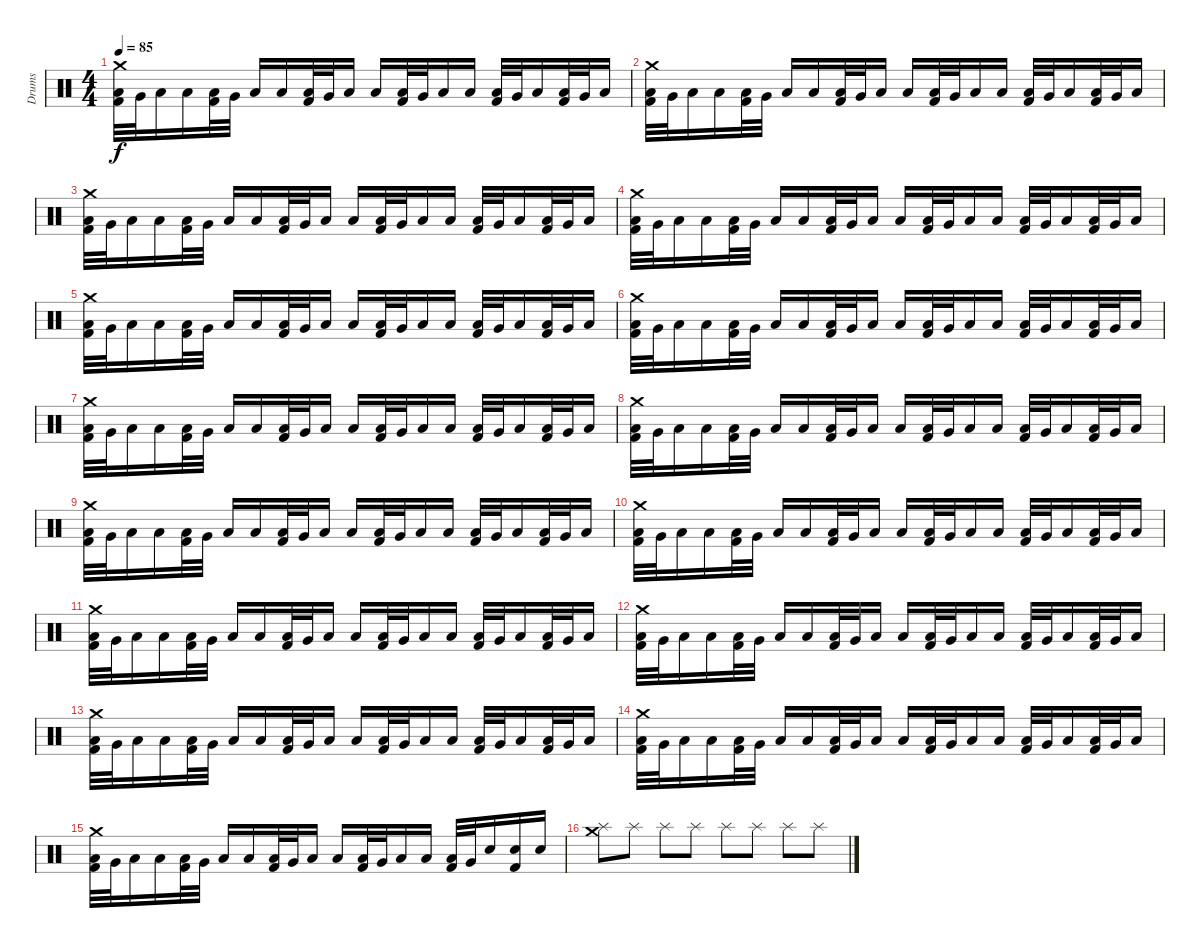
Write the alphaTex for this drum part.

\track ("Drums" "Drums") {instrument percussion}
\staff {score}
\articulation defaults
\ts (4 4)
\tempo 85
\clef neutral
\ks c
("Crash medium (hit)" "Low Tom (hit)" "Kick (hit) 2").32{dy f} "Very Low Tom (hit)".32 "Low Floor Tom (hit)".16 "Low Floor Tom (hit)".16 ("Low Tom (hit)" "Kick (hit) 2").32 "Very Low Tom (hit)".32 "Low Floor Tom (hit)".16 "Low Floor Tom (hit)".16 ("Low Tom (hit)" "Kick (hit) 2").32 "Very Low Tom (hit)".32 "Low Floor Tom (hit)".16 "Low Floor Tom (hit)".16 ("Low Tom (hit)" "Kick (hit) 2").32 "Very Low Tom (hit)".32 "Low Floor Tom (hit)".16 "Low Floor Tom (hit)".16 ("Low Tom (hit)" "Kick (hit) 2").32 "Very Low Tom (hit)".32 "Low Floor Tom (hit)".16 ("Low Tom (hit)" "Kick (hit) 2").32 "Very Low Tom (hit)".32 "Low Floor Tom (hit)".16 |
("Crash medium (hit)" "Low Tom (hit)" "Kick (hit) 2").32 "Very Low Tom (hit)".32 "Low Floor Tom (hit)".16 "Low Floor Tom (hit)".16 ("Low Tom (hit)" "Kick (hit) 2").32 "Very Low Tom (hit)".32 "Low Floor Tom (hit)".16 "Low Floor Tom (hit)".16 ("Low Tom (hit)" "Kick (hit) 2").32 "Very Low Tom (hit)".32 "Low Floor Tom (hit)".16 "Low Floor Tom (hit)".16 ("Low Tom (hit)" "Kick (hit) 2").32 "Very Low Tom (hit)".32 "Low Floor Tom (hit)".16 "Low Floor Tom (hit)".16 ("Low Tom (hit)" "Kick (hit) 2").32 "Very Low Tom (hit)".32 "Low Floor Tom (hit)".16 ("Low Tom (hit)" "Kick (hit) 2").32 "Very Low Tom (hit)".32 "Low Floor Tom (hit)".16 |
("Crash medium (hit)" "Low Tom (hit)" "Kick (hit) 2").32 "Very Low Tom (hit)".32 "Low Floor Tom (hit)".16 "Low Floor Tom (hit)".16 ("Low Tom (hit)" "Kick (hit) 2").32 "Very Low Tom (hit)".32 "Low Floor Tom (hit)".16 "Low Floor Tom (hit)".16 ("Low Tom (hit)" "Kick (hit) 2").32 "Very Low Tom (hit)".32 "Low Floor Tom (hit)".16 "Low Floor Tom (hit)".16 ("Low Tom (hit)" "Kick (hit) 2").32 "Very Low Tom (hit)".32 "Low Floor Tom (hit)".16 "Low Floor Tom (hit)".16 ("Low Tom (hit)" "Kick (hit) 2").32 "Very Low Tom (hit)".32 "Low Floor Tom (hit)".16 ("Low Tom (hit)" "Kick (hit) 2").32 "Very Low Tom (hit)".32 "Low Floor Tom (hit)".16 |
("Crash medium (hit)" "Low Tom (hit)" "Kick (hit) 2").32 "Very Low Tom (hit)".32 "Low Floor Tom (hit)".16 "Low Floor Tom (hit)".16 ("Low Tom (hit)" "Kick (hit) 2").32 "Very Low Tom (hit)".32 "Low Floor Tom (hit)".16 "Low Floor Tom (hit)".16 ("Low Tom (hit)" "Kick (hit) 2").32 "Very Low Tom (hit)".32 "Low Floor Tom (hit)".16 "Low Floor Tom (hit)".16 ("Low Tom (hit)" "Kick (hit) 2").32 "Very Low Tom (hit)".32 "Low Floor Tom (hit)".16 "Low Floor Tom (hit)".16 ("Low Tom (hit)" "Kick (hit) 2").32 "Very Low Tom (hit)".32 "Low Floor Tom (hit)".16 ("Low Tom (hit)" "Kick (hit) 2").32 "Very Low Tom (hit)".32 "Low Floor Tom (hit)".16 |
("Crash medium (hit)" "Low Tom (hit)" "Kick (hit) 2").32 "Very Low Tom (hit)".32 "Low Floor Tom (hit)".16 "Low Floor Tom (hit)".16 ("Low Tom (hit)" "Kick (hit) 2").32 "Very Low Tom (hit)".32 "Low Floor Tom (hit)".16 "Low Floor Tom (hit)".16 ("Low Tom (hit)" "Kick (hit) 2").32 "Very Low Tom (hit)".32 "Low Floor Tom (hit)".16 "Low Floor Tom (hit)".16 ("Low Tom (hit)" "Kick (hit) 2").32 "Very Low Tom (hit)".32 "Low Floor Tom (hit)".16 "Low Floor Tom (hit)".16 ("Low Tom (hit)" "Kick (hit) 2").32 "Very Low Tom (hit)".32 "Low Floor Tom (hit)".16 ("Low Tom (hit)" "Kick (hit) 2").32 "Very Low Tom (hit)".32 "Low Floor Tom (hit)".16 |
("Crash medium (hit)" "Low Tom (hit)" "Kick (hit) 2").32 "Very Low Tom (hit)".32 "Low Floor Tom (hit)".16 "Low Floor Tom (hit)".16 ("Low Tom (hit)" "Kick (hit) 2").32 "Very Low Tom (hit)".32 "Low Floor Tom (hit)".16 "Low Floor Tom (hit)".16 ("Low Tom (hit)" "Kick (hit) 2").32 "Very Low Tom (hit)".32 "Low Floor Tom (hit)".16 "Low Floor Tom (hit)".16 ("Low Tom (hit)" "Kick (hit) 2").32 "Very Low Tom (hit)".32 "Low Floor Tom (hit)".16 "Low Floor Tom (hit)".16 ("Low Tom (hit)" "Kick (hit) 2").32 "Very Low Tom (hit)".32 "Low Floor Tom (hit)".16 ("Low Tom (hit)" "Kick (hit) 2").32 "Very Low Tom (hit)".32 "Low Floor Tom (hit)".16 |
("Crash medium (hit)" "Low Tom (hit)" "Kick (hit) 2").32 "Very Low Tom (hit)".32 "Low Floor Tom (hit)".16 "Low Floor Tom (hit)".16 ("Low Tom (hit)" "Kick (hit) 2").32 "Very Low Tom (hit)".32 "Low Floor Tom (hit)".16 "Low Floor Tom (hit)".16 ("Low Tom (hit)" "Kick (hit) 2").32 "Very Low Tom (hit)".32 "Low Floor Tom (hit)".16 "Low Floor Tom (hit)".16 ("Low Tom (hit)" "Kick (hit) 2").32 "Very Low Tom (hit)".32 "Low Floor Tom (hit)".16 "Low Floor Tom (hit)".16 ("Low Tom (hit)" "Kick (hit) 2").32 "Very Low Tom (hit)".32 "Low Floor Tom (hit)".16 ("Low Tom (hit)" "Kick (hit) 2").32 "Very Low Tom (hit)".32 "Low Floor Tom (hit)".16 |
("Crash medium (hit)" "Low Tom (hit)" "Kick (hit) 2").32 "Very Low Tom (hit)".32 "Low Floor Tom (hit)".16 "Low Floor Tom (hit)".16 ("Low Tom (hit)" "Kick (hit) 2").32 "Very Low Tom (hit)".32 "Low Floor Tom (hit)".16 "Low Floor Tom (hit)".16 ("Low Tom (hit)" "Kick (hit) 2").32 "Very Low Tom (hit)".32 "Low Floor Tom (hit)".16 "Low Floor Tom (hit)".16 ("Low Tom (hit)" "Kick (hit) 2").32 "Very Low Tom (hit)".32 "Low Floor Tom (hit)".16 "Low Floor Tom (hit)".16 ("Low Tom (hit)" "Kick (hit) 2").32 "Very Low Tom (hit)".32 "Low Floor Tom (hit)".16 ("Low Tom (hit)" "Kick (hit) 2").32 "Very Low Tom (hit)".32 "Low Floor Tom (hit)".16 |
("Crash medium (hit)" "Low Tom (hit)" "Kick (hit) 2").32 "Very Low Tom (hit)".32 "Low Floor Tom (hit)".16 "Low Floor Tom (hit)".16 ("Low Tom (hit)" "Kick (hit) 2").32 "Very Low Tom (hit)".32 "Low Floor Tom (hit)".16 "Low Floor Tom (hit)".16 ("Low Tom (hit)" "Kick (hit) 2").32 "Very Low Tom (hit)".32 "Low Floor Tom (hit)".16 "Low Floor Tom (hit)".16 ("Low Tom (hit)" "Kick (hit) 2").32 "Very Low Tom (hit)".32 "Low Floor Tom (hit)".16 "Low Floor Tom (hit)".16 ("Low Tom (hit)" "Kick (hit) 2").32 "Very Low Tom (hit)".32 "Low Floor Tom (hit)".16 ("Low Tom (hit)" "Kick (hit) 2").32 "Very Low Tom (hit)".32 "Low Floor Tom (hit)".16 |
("Crash medium (hit)" "Low Tom (hit)" "Kick (hit) 2").32 "Very Low Tom (hit)".32 "Low Floor Tom (hit)".16 "Low Floor Tom (hit)".16 ("Low Tom (hit)" "Kick (hit) 2").32 "Very Low Tom (hit)".32 "Low Floor Tom (hit)".16 "Low Floor Tom (hit)".16 ("Low Tom (hit)" "Kick (hit) 2").32 "Very Low Tom (hit)".32 "Low Floor Tom (hit)".16 "Low Floor Tom (hit)".16 ("Low Tom (hit)" "Kick (hit) 2").32 "Very Low Tom (hit)".32 "Low Floor Tom (hit)".16 "Low Floor Tom (hit)".16 ("Low Tom (hit)" "Kick (hit) 2").32 "Very Low Tom (hit)".32 "Low Floor Tom (hit)".16 ("Low Tom (hit)" "Kick (hit) 2").32 "Very Low Tom (hit)".32 "Low Floor Tom (hit)".16 |
("Crash medium (hit)" "Low Tom (hit)" "Kick (hit) 2").32 "Very Low Tom (hit)".32 "Low Floor Tom (hit)".16 "Low Floor Tom (hit)".16 ("Low Tom (hit)" "Kick (hit) 2").32 "Very Low Tom (hit)".32 "Low Floor Tom (hit)".16 "Low Floor Tom (hit)".16 ("Low Tom (hit)" "Kick (hit) 2").32 "Very Low Tom (hit)".32 "Low Floor Tom (hit)".16 "Low Floor Tom (hit)".16 ("Low Tom (hit)" "Kick (hit) 2").32 "Very Low Tom (hit)".32 "Low Floor Tom (hit)".16 "Low Floor Tom (hit)".16 ("Low Tom (hit)" "Kick (hit) 2").32 "Very Low Tom (hit)".32 "Low Floor Tom (hit)".16 ("Low Tom (hit)" "Kick (hit) 2").32 "Very Low Tom (hit)".32 "Low Floor Tom (hit)".16 |
("Crash medium (hit)" "Low Tom (hit)" "Kick (hit) 2").32 "Very Low Tom (hit)".32 "Low Floor Tom (hit)".16 "Low Floor Tom (hit)".16 ("Low Tom (hit)" "Kick (hit) 2").32 "Very Low Tom (hit)".32 "Low Floor Tom (hit)".16 "Low Floor Tom (hit)".16 ("Low Tom (hit)" "Kick (hit) 2").32 "Very Low Tom (hit)".32 "Low Floor Tom (hit)".16 "Low Floor Tom (hit)".16 ("Low Tom (hit)" "Kick (hit) 2").32 "Very Low Tom (hit)".32 "Low Floor Tom (hit)".16 "Low Floor Tom (hit)".16 ("Low Tom (hit)" "Kick (hit) 2").32 "Very Low Tom (hit)".32 "Low Floor Tom (hit)".16 ("Low Tom (hit)" "Kick (hit) 2").32 "Very Low Tom (hit)".32 "Low Floor Tom (hit)".16 |
("Crash medium (hit)" "Low Tom (hit)" "Kick (hit) 2").32 "Very Low Tom (hit)".32 "Low Floor Tom (hit)".16 "Low Floor Tom (hit)".16 ("Low Tom (hit)" "Kick (hit) 2").32 "Very Low Tom (hit)".32 "Low Floor Tom (hit)".16 "Low Floor Tom (hit)".16 ("Low Tom (hit)" "Kick (hit) 2").32 "Very Low Tom (hit)".32 "Low Floor Tom (hit)".16 "Low Floor Tom (hit)".16 ("Low Tom (hit)" "Kick (hit) 2").32 "Very Low Tom (hit)".32 "Low Floor Tom (hit)".16 "Low Floor Tom (hit)".16 ("Low Tom (hit)" "Kick (hit) 2").32 "Very Low Tom (hit)".32 "Low Floor Tom (hit)".16 ("Low Tom (hit)" "Kick (hit) 2").32 "Very Low Tom (hit)".32 "Low Floor Tom (hit)".16 |
("Crash medium (hit)" "Low Tom (hit)" "Kick (hit) 2").32 "Very Low Tom (hit)".32 "Low Floor Tom (hit)".16 "Low Floor Tom (hit)".16 ("Low Tom (hit)" "Kick (hit) 2").32 "Very Low Tom (hit)".32 "Low Floor Tom (hit)".16 "Low Floor Tom (hit)".16 ("Low Tom (hit)" "Kick (hit) 2").32 "Very Low Tom (hit)".32 "Low Floor Tom (hit)".16 "Low Floor Tom (hit)".16 ("Low Tom (hit)" "Kick (hit) 2").32 "Very Low Tom (hit)".32 "Low Floor Tom (hit)".16 "Low Floor Tom (hit)".16 ("Low Tom (hit)" "Kick (hit) 2").32 "Very Low Tom (hit)".32 "Low Floor Tom (hit)".16 ("Low Tom (hit)" "Kick (hit) 2").32 "Very Low Tom (hit)".32 "Low Floor Tom (hit)".16 |
("Crash medium (hit)" "Low Tom (hit)" "Kick (hit) 2").32 "Very Low Tom (hit)".32 "Low Floor Tom (hit)".16 "Low Floor Tom (hit)".16 ("Low Tom (hit)" "Kick (hit) 2").32 "Very Low Tom (hit)".32 "Low Floor Tom (hit)".16 "Low Floor Tom (hit)".16 ("Low Tom (hit)" "Kick (hit) 2").32 "Very Low Tom (hit)".32 "Low Floor Tom (hit)".16 "Low Floor Tom (hit)".16 ("Low Tom (hit)" "Kick (hit) 2").32 "Very Low Tom (hit)".32 "Low Floor Tom (hit)".16 "Low Floor Tom (hit)".16 ("Low Tom (hit)" "Kick (hit) 2").32 "Very Low Tom (hit)".32 "Snare (hit) 2".16 ("Snare (hit) 2" "Kick (hit) 2").16 "Snare (hit) 2".16 |
("Crash medium (hit)" "Splash (hit)").8 "Splash (hit)".8 "Splash (hit)".8 "Splash (hit)".8 "Splash (hit)".8 "Splash (hit)".8 "Splash (hit)".8 "Splash (hit)".8
